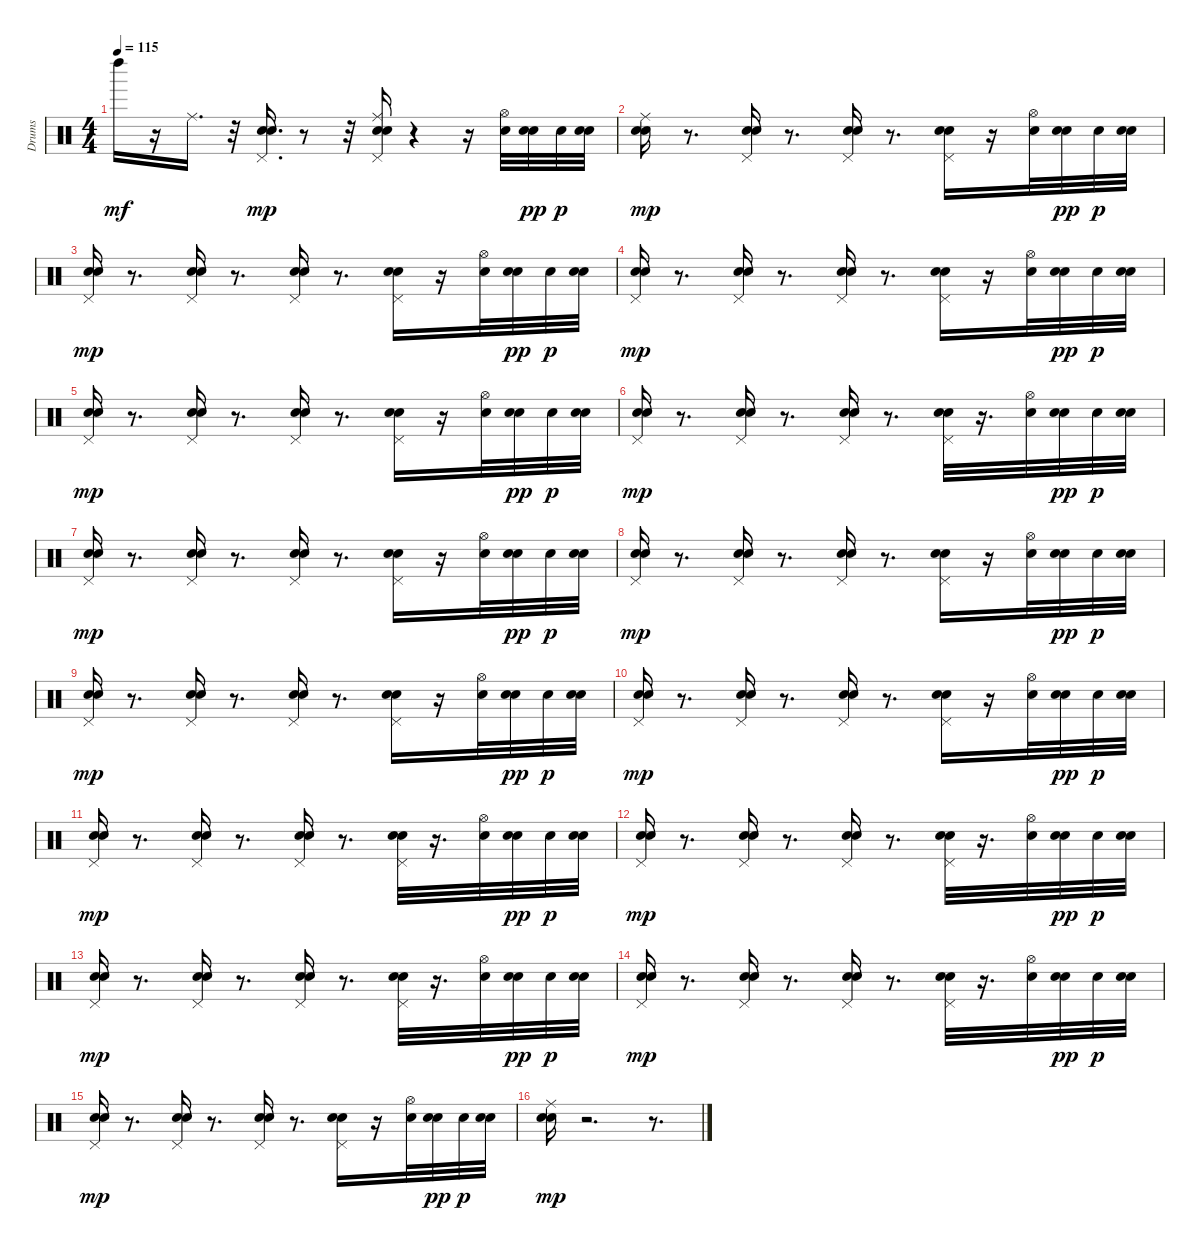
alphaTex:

\track ("Drums" "Drums") {instrument percussion}
\staff {score}
\articulation defaults
\ts (4 4)
\tempo 115
\clef neutral
\ks c "Left Maraca (hit)".16{dy mf}
r.16 "Ride (middle)".16{d} r.32 ("Snare (hit) 2" "Snare (hit) 2" "Pedal Hi-Hat (hit)").16{d dy mp} r.8 r.32 ("Snare (hit) 2" "Snare (hit) 2" "Pedal Hi-Hat (hit)" "Ride (middle)").16 r.4 r.16 ("Snare (hit) 2" "Hi-Hat (open)").32 ("Snare (hit) 2" "Snare (hit) 2").32{dy pp} "Snare (hit) 2".32{dy p} ("Snare (hit) 2" "Snare (hit) 2").32 |
("Snare (hit) 2" "Snare (hit) 2" "Ride (middle)").16{dy mp} r.8{d} ("Snare (hit) 2" "Snare (hit) 2" "Pedal Hi-Hat (hit)").16 r.8{d} ("Snare (hit) 2" "Snare (hit) 2" "Pedal Hi-Hat (hit)").16 r.8{d} ("Snare (hit) 2" "Snare (hit) 2" "Pedal Hi-Hat (hit)").16 r.16 ("Snare (hit) 2" "Hi-Hat (open)").32 ("Snare (hit) 2" "Snare (hit) 2").32{dy pp} "Snare (hit) 2".32{dy p} ("Snare (hit) 2" "Snare (hit) 2").32 |
("Snare (hit) 2" "Snare (hit) 2" "Pedal Hi-Hat (hit)").16{dy mp} r.8{d} ("Snare (hit) 2" "Snare (hit) 2" "Pedal Hi-Hat (hit)").16 r.8{d} ("Snare (hit) 2" "Snare (hit) 2" "Pedal Hi-Hat (hit)").16 r.8{d} ("Snare (hit) 2" "Snare (hit) 2" "Pedal Hi-Hat (hit)").16 r.16 ("Snare (hit) 2" "Hi-Hat (open)").32 ("Snare (hit) 2" "Snare (hit) 2").32{dy pp} "Snare (hit) 2".32{dy p} ("Snare (hit) 2" "Snare (hit) 2").32 |
("Snare (hit) 2" "Snare (hit) 2" "Pedal Hi-Hat (hit)").16{dy mp} r.8{d} ("Snare (hit) 2" "Snare (hit) 2" "Pedal Hi-Hat (hit)").16 r.8{d} ("Snare (hit) 2" "Snare (hit) 2" "Pedal Hi-Hat (hit)").16 r.8{d} ("Snare (hit) 2" "Snare (hit) 2" "Pedal Hi-Hat (hit)").16 r.16 ("Snare (hit) 2" "Hi-Hat (open)").32 ("Snare (hit) 2" "Snare (hit) 2").32{dy pp} "Snare (hit) 2".32{dy p} ("Snare (hit) 2" "Snare (hit) 2").32 |
("Snare (hit) 2" "Snare (hit) 2" "Pedal Hi-Hat (hit)").16{dy mp} r.8{d} ("Snare (hit) 2" "Snare (hit) 2" "Pedal Hi-Hat (hit)").16 r.8{d} ("Snare (hit) 2" "Snare (hit) 2" "Pedal Hi-Hat (hit)").16 r.8{d} ("Snare (hit) 2" "Snare (hit) 2" "Pedal Hi-Hat (hit)").16 r.16 ("Snare (hit) 2" "Hi-Hat (open)").32 ("Snare (hit) 2" "Snare (hit) 2").32{dy pp} "Snare (hit) 2".32{dy p} ("Snare (hit) 2" "Snare (hit) 2").32 |
("Snare (hit) 2" "Snare (hit) 2" "Pedal Hi-Hat (hit)").16{dy mp} r.8{d} ("Snare (hit) 2" "Snare (hit) 2" "Pedal Hi-Hat (hit)").16 r.8{d} ("Snare (hit) 2" "Snare (hit) 2" "Pedal Hi-Hat (hit)").16 r.8{d} ("Snare (hit) 2" "Snare (hit) 2" "Pedal Hi-Hat (hit)").32 r.16{d} ("Snare (hit) 2" "Hi-Hat (open)").32 ("Snare (hit) 2" "Snare (hit) 2").32{dy pp} "Snare (hit) 2".32{dy p} ("Snare (hit) 2" "Snare (hit) 2").32 |
("Snare (hit) 2" "Snare (hit) 2" "Pedal Hi-Hat (hit)").16{dy mp} r.8{d} ("Snare (hit) 2" "Snare (hit) 2" "Pedal Hi-Hat (hit)").16 r.8{d} ("Snare (hit) 2" "Snare (hit) 2" "Pedal Hi-Hat (hit)").16 r.8{d} ("Snare (hit) 2" "Snare (hit) 2" "Pedal Hi-Hat (hit)").16 r.16 ("Snare (hit) 2" "Hi-Hat (open)").32 ("Snare (hit) 2" "Snare (hit) 2").32{dy pp} "Snare (hit) 2".32{dy p} ("Snare (hit) 2" "Snare (hit) 2").32 |
("Snare (hit) 2" "Snare (hit) 2" "Pedal Hi-Hat (hit)").16{dy mp} r.8{d} ("Snare (hit) 2" "Snare (hit) 2" "Pedal Hi-Hat (hit)").16 r.8{d} ("Snare (hit) 2" "Snare (hit) 2" "Pedal Hi-Hat (hit)").16 r.8{d} ("Snare (hit) 2" "Snare (hit) 2" "Pedal Hi-Hat (hit)").16 r.16 ("Snare (hit) 2" "Hi-Hat (open)").32 ("Snare (hit) 2" "Snare (hit) 2").32{dy pp} "Snare (hit) 2".32{dy p} ("Snare (hit) 2" "Snare (hit) 2").32 |
("Snare (hit) 2" "Snare (hit) 2" "Pedal Hi-Hat (hit)").16{dy mp} r.8{d} ("Snare (hit) 2" "Snare (hit) 2" "Pedal Hi-Hat (hit)").16 r.8{d} ("Snare (hit) 2" "Snare (hit) 2" "Pedal Hi-Hat (hit)").16 r.8{d} ("Snare (hit) 2" "Snare (hit) 2" "Pedal Hi-Hat (hit)").16 r.16 ("Snare (hit) 2" "Hi-Hat (open)").32 ("Snare (hit) 2" "Snare (hit) 2").32{dy pp} "Snare (hit) 2".32{dy p} ("Snare (hit) 2" "Snare (hit) 2").32 |
("Snare (hit) 2" "Snare (hit) 2" "Pedal Hi-Hat (hit)").16{dy mp} r.8{d} ("Snare (hit) 2" "Snare (hit) 2" "Pedal Hi-Hat (hit)").16 r.8{d} ("Snare (hit) 2" "Snare (hit) 2" "Pedal Hi-Hat (hit)").16 r.8{d} ("Snare (hit) 2" "Snare (hit) 2" "Pedal Hi-Hat (hit)").16 r.16 ("Snare (hit) 2" "Hi-Hat (open)").32 ("Snare (hit) 2" "Snare (hit) 2").32{dy pp} "Snare (hit) 2".32{dy p} ("Snare (hit) 2" "Snare (hit) 2").32 |
("Snare (hit) 2" "Snare (hit) 2" "Pedal Hi-Hat (hit)").16{dy mp} r.8{d} ("Snare (hit) 2" "Snare (hit) 2" "Pedal Hi-Hat (hit)").16 r.8{d} ("Snare (hit) 2" "Snare (hit) 2" "Pedal Hi-Hat (hit)").16 r.8{d} ("Snare (hit) 2" "Snare (hit) 2" "Pedal Hi-Hat (hit)").32 r.16{d} ("Snare (hit) 2" "Hi-Hat (open)").32 ("Snare (hit) 2" "Snare (hit) 2").32{dy pp} "Snare (hit) 2".32{dy p} ("Snare (hit) 2" "Snare (hit) 2").32 |
("Snare (hit) 2" "Snare (hit) 2" "Pedal Hi-Hat (hit)").16{dy mp} r.8{d} ("Snare (hit) 2" "Snare (hit) 2" "Pedal Hi-Hat (hit)").16 r.8{d} ("Snare (hit) 2" "Snare (hit) 2" "Pedal Hi-Hat (hit)").16 r.8{d} ("Snare (hit) 2" "Snare (hit) 2" "Pedal Hi-Hat (hit)").32 r.16{d} ("Snare (hit) 2" "Hi-Hat (open)").32 ("Snare (hit) 2" "Snare (hit) 2").32{dy pp} "Snare (hit) 2".32{dy p} ("Snare (hit) 2" "Snare (hit) 2").32 |
("Snare (hit) 2" "Snare (hit) 2" "Pedal Hi-Hat (hit)").16{dy mp} r.8{d} ("Snare (hit) 2" "Snare (hit) 2" "Pedal Hi-Hat (hit)").16 r.8{d} ("Snare (hit) 2" "Snare (hit) 2" "Pedal Hi-Hat (hit)").16 r.8{d} ("Snare (hit) 2" "Snare (hit) 2" "Pedal Hi-Hat (hit)").32 r.16{d} ("Snare (hit) 2" "Hi-Hat (open)").32 ("Snare (hit) 2" "Snare (hit) 2").32{dy pp} "Snare (hit) 2".32{dy p} ("Snare (hit) 2" "Snare (hit) 2").32 |
("Snare (hit) 2" "Snare (hit) 2" "Pedal Hi-Hat (hit)").16{dy mp} r.8{d} ("Snare (hit) 2" "Snare (hit) 2" "Pedal Hi-Hat (hit)").16 r.8{d} ("Snare (hit) 2" "Snare (hit) 2" "Pedal Hi-Hat (hit)").16 r.8{d} ("Snare (hit) 2" "Snare (hit) 2" "Pedal Hi-Hat (hit)").32 r.16{d} ("Snare (hit) 2" "Hi-Hat (open)").32 ("Snare (hit) 2" "Snare (hit) 2").32{dy pp} "Snare (hit) 2".32{dy p} ("Snare (hit) 2" "Snare (hit) 2").32 |
("Snare (hit) 2" "Snare (hit) 2" "Pedal Hi-Hat (hit)").16{dy mp} r.8{d} ("Snare (hit) 2" "Snare (hit) 2" "Pedal Hi-Hat (hit)").16 r.8{d} ("Snare (hit) 2" "Snare (hit) 2" "Pedal Hi-Hat (hit)").16 r.8{d} ("Snare (hit) 2" "Snare (hit) 2" "Pedal Hi-Hat (hit)").16 r.16 ("Snare (hit) 2" "Hi-Hat (open)").32 ("Snare (hit) 2" "Snare (hit) 2").32{dy pp} "Snare (hit) 2".32{dy p} ("Snare (hit) 2" "Snare (hit) 2").32 |
("Snare (hit) 2" "Snare (hit) 2" "Ride (middle)").16{dy mp} r.2{d} r.8{d}
